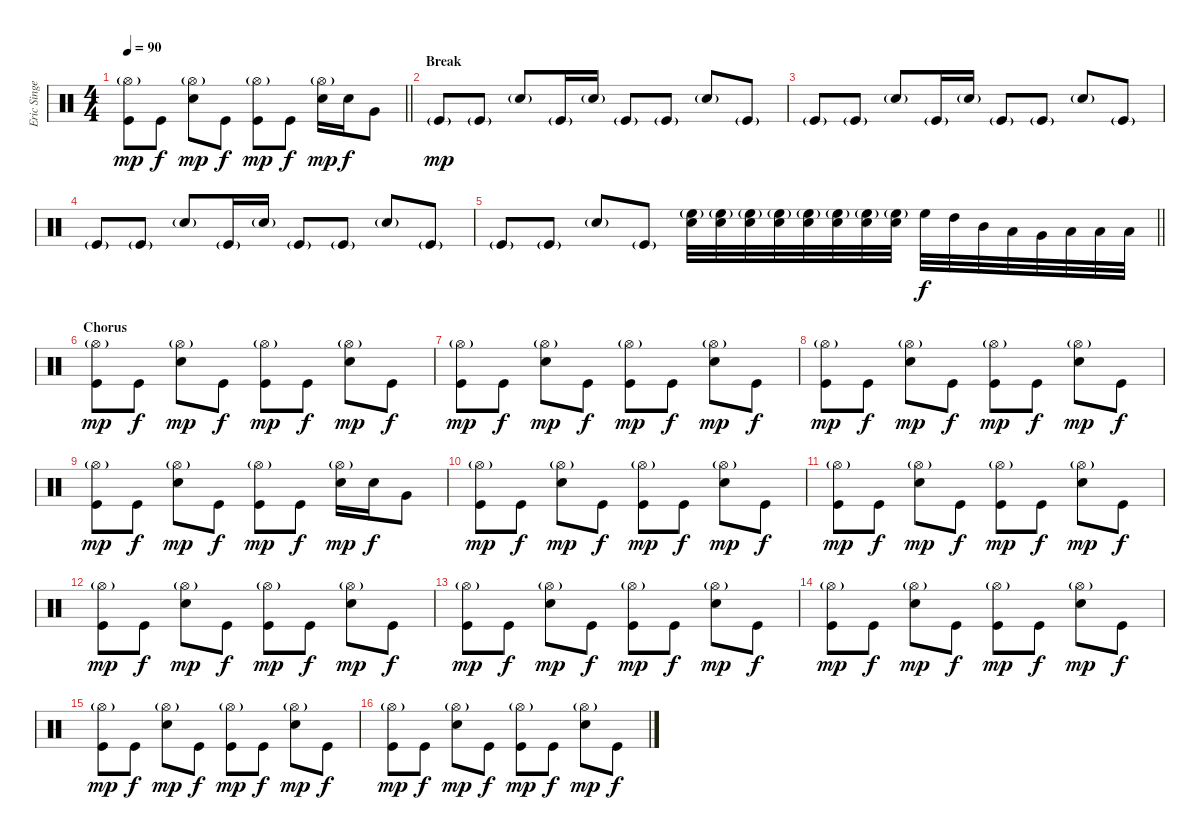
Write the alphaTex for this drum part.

\track ("Eric Singer (Drums)" "Eric Singe") {instrument percussion}
\staff {score}
\articulation defaults
\ts (4 4)
\tempo 90
\clef neutral
\barLineRight lightlight
\ks c
("Hi-Hat (open)"{g} "Kick (hit)").8{dy mp} "Kick (hit)".8{dy f} ("Hi-Hat (open)"{g} "Snare (hit) 2").8{dy mp} "Kick (hit)".8{dy f} ("Hi-Hat (open)"{g} "Kick (hit)").8{dy mp} "Kick (hit)".8{dy f} ("Hi-Hat (open)"{g} "Snare (hit) 2").16{dy mp} "Snare (hit) 2".16{dy f} "Very Low Tom (hit)".8 |
\section ("" "Break")
"Kick (hit)"{g}.8{dy mp} "Kick (hit)"{g}.8 "Snare (hit) 2"{g}.8 "Kick (hit)"{g}.16 "Snare (hit) 2"{g}.16 "Kick (hit)"{g}.8 "Kick (hit)"{g}.8 "Snare (hit) 2"{g}.8 "Kick (hit)"{g}.8 |
"Kick (hit)"{g}.8 "Kick (hit)"{g}.8 "Snare (hit) 2"{g}.8 "Kick (hit)"{g}.16 "Snare (hit) 2"{g}.16 "Kick (hit)"{g}.8 "Kick (hit)"{g}.8 "Snare (hit) 2"{g}.8 "Kick (hit)"{g}.8 |
"Kick (hit)"{g}.8 "Kick (hit)"{g}.8 "Snare (hit) 2"{g}.8 "Kick (hit)"{g}.16 "Snare (hit) 2"{g}.16 "Kick (hit)"{g}.8 "Kick (hit)"{g}.8 "Snare (hit) 2"{g}.8 "Kick (hit)"{g}.8 |
\barLineRight lightlight "Kick (hit)"{g}.8 "Kick (hit)"{g}.8 "Snare (hit) 2"{g}.8 "Kick (hit)"{g}.8
("High Floor Tom (hit)"{g} "Snare (hit) 2").32 ("High Floor Tom (hit)"{g} "Snare (hit) 2").32 ("High Floor Tom (hit)"{g} "Snare (hit) 2").32 ("High Floor Tom (hit)"{g} "Snare (hit) 2").32 ("High Floor Tom (hit)"{g} "Snare (hit) 2").32 ("High Floor Tom (hit)"{g} "Snare (hit) 2").32 ("High Floor Tom (hit)"{g} "Snare (hit) 2").32 ("High Floor Tom (hit)"{g} "Snare (hit) 2").32 "High Floor Tom (hit)".32{dy f} "High Tom (hit)".32 "Mid Tom (hit)".32 "Low Tom (hit)".32 "Very Low Tom (hit)".32 "Low Floor Tom (hit)".32 "Low Floor Tom (hit)".32 "Low Floor Tom (hit)".32 |
\section ("" "Chorus")
("Hi-Hat (open)"{g} "Kick (hit)").8{dy mp} "Kick (hit)".8{dy f} ("Hi-Hat (open)"{g} "Snare (hit) 2").8{dy mp} "Kick (hit)".8{dy f} ("Hi-Hat (open)"{g} "Kick (hit)").8{dy mp} "Kick (hit)".8{dy f} ("Hi-Hat (open)"{g} "Snare (hit) 2").8{dy mp} "Kick (hit)".8{dy f} |
("Hi-Hat (open)"{g} "Kick (hit)").8{dy mp} "Kick (hit)".8{dy f} ("Hi-Hat (open)"{g} "Snare (hit) 2").8{dy mp} "Kick (hit)".8{dy f} ("Hi-Hat (open)"{g} "Kick (hit)").8{dy mp} "Kick (hit)".8{dy f} ("Hi-Hat (open)"{g} "Snare (hit) 2").8{dy mp} "Kick (hit)".8{dy f} |
("Hi-Hat (open)"{g} "Kick (hit)").8{dy mp} "Kick (hit)".8{dy f} ("Hi-Hat (open)"{g} "Snare (hit) 2").8{dy mp} "Kick (hit)".8{dy f} ("Hi-Hat (open)"{g} "Kick (hit)").8{dy mp} "Kick (hit)".8{dy f} ("Hi-Hat (open)"{g} "Snare (hit) 2").8{dy mp} "Kick (hit)".8{dy f} |
("Hi-Hat (open)"{g} "Kick (hit)").8{dy mp} "Kick (hit)".8{dy f} ("Hi-Hat (open)"{g} "Snare (hit) 2").8{dy mp} "Kick (hit)".8{dy f} ("Hi-Hat (open)"{g} "Kick (hit)").8{dy mp} "Kick (hit)".8{dy f} ("Hi-Hat (open)"{g} "Snare (hit) 2").16{dy mp} "Snare (hit) 2".16{dy f} "Very Low Tom (hit)".8 |
("Hi-Hat (open)"{g} "Kick (hit)").8{dy mp} "Kick (hit)".8{dy f} ("Hi-Hat (open)"{g} "Snare (hit) 2").8{dy mp} "Kick (hit)".8{dy f} ("Hi-Hat (open)"{g} "Kick (hit)").8{dy mp} "Kick (hit)".8{dy f} ("Hi-Hat (open)"{g} "Snare (hit) 2").8{dy mp} "Kick (hit)".8{dy f} |
("Hi-Hat (open)"{g} "Kick (hit)").8{dy mp} "Kick (hit)".8{dy f} ("Hi-Hat (open)"{g} "Snare (hit) 2").8{dy mp} "Kick (hit)".8{dy f} ("Hi-Hat (open)"{g} "Kick (hit)").8{dy mp} "Kick (hit)".8{dy f} ("Hi-Hat (open)"{g} "Snare (hit) 2").8{dy mp} "Kick (hit)".8{dy f} |
("Hi-Hat (open)"{g} "Kick (hit)").8{dy mp} "Kick (hit)".8{dy f} ("Hi-Hat (open)"{g} "Snare (hit) 2").8{dy mp} "Kick (hit)".8{dy f} ("Hi-Hat (open)"{g} "Kick (hit)").8{dy mp} "Kick (hit)".8{dy f} ("Hi-Hat (open)"{g} "Snare (hit) 2").8{dy mp} "Kick (hit)".8{dy f} |
("Hi-Hat (open)"{g} "Kick (hit)").8{dy mp} "Kick (hit)".8{dy f} ("Hi-Hat (open)"{g} "Snare (hit) 2").8{dy mp} "Kick (hit)".8{dy f} ("Hi-Hat (open)"{g} "Kick (hit)").8{dy mp} "Kick (hit)".8{dy f} ("Hi-Hat (open)"{g} "Snare (hit) 2").8{dy mp} "Kick (hit)".8{dy f} |
("Hi-Hat (open)"{g} "Kick (hit)").8{dy mp} "Kick (hit)".8{dy f} ("Hi-Hat (open)"{g} "Snare (hit) 2").8{dy mp} "Kick (hit)".8{dy f} ("Hi-Hat (open)"{g} "Kick (hit)").8{dy mp} "Kick (hit)".8{dy f} ("Hi-Hat (open)"{g} "Snare (hit) 2").8{dy mp} "Kick (hit)".8{dy f} |
("Hi-Hat (open)"{g} "Kick (hit)").8{dy mp} "Kick (hit)".8{dy f} ("Hi-Hat (open)"{g} "Snare (hit) 2").8{dy mp} "Kick (hit)".8{dy f} ("Hi-Hat (open)"{g} "Kick (hit)").8{dy mp} "Kick (hit)".8{dy f} ("Hi-Hat (open)"{g} "Snare (hit) 2").8{dy mp} "Kick (hit)".8{dy f} |
("Hi-Hat (open)"{g} "Kick (hit)").8{dy mp} "Kick (hit)".8{dy f} ("Hi-Hat (open)"{g} "Snare (hit) 2").8{dy mp} "Kick (hit)".8{dy f} ("Hi-Hat (open)"{g} "Kick (hit)").8{dy mp} "Kick (hit)".8{dy f} ("Hi-Hat (open)"{g} "Snare (hit) 2").8{dy mp} "Kick (hit)".8{dy f}
